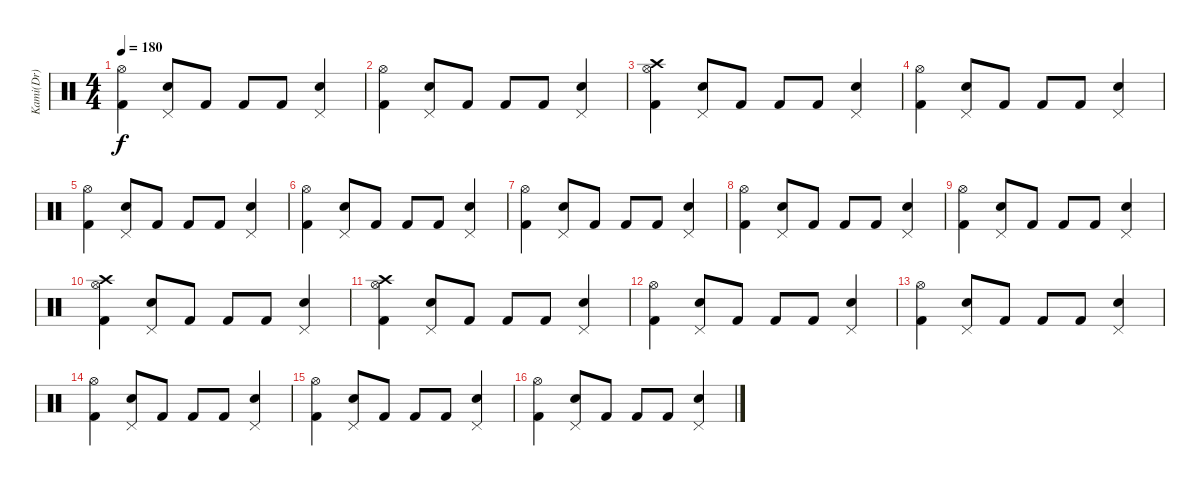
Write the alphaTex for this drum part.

\track ("Kami(Dr)" "Kami(Dr)") {instrument percussion}
\staff {score}
\articulation defaults
\ts (4 4)
\tempo 180
\clef neutral
\ks c
("Kick (hit) 2" "Hi-Hat (open)").4{dy f} ("Electric Snare (hit)" "Pedal Hi-Hat (hit)").8 "Kick (hit) 2".8 "Kick (hit) 2".8 "Kick (hit) 2".8 ("Electric Snare (hit)" "Pedal Hi-Hat (hit)").4 |
("Kick (hit) 2" "Hi-Hat (open)").4 ("Electric Snare (hit)" "Pedal Hi-Hat (hit)").8 "Kick (hit) 2".8 "Kick (hit) 2".8 "Kick (hit) 2".8 ("Electric Snare (hit)" "Pedal Hi-Hat (hit)").4 |
("Kick (hit) 2" "Hi-Hat (open)" "Crash high (hit)").4 ("Electric Snare (hit)" "Pedal Hi-Hat (hit)").8 "Kick (hit) 2".8 "Kick (hit) 2".8 "Kick (hit) 2".8 ("Electric Snare (hit)" "Pedal Hi-Hat (hit)").4 |
("Kick (hit) 2" "Hi-Hat (open)").4 ("Electric Snare (hit)" "Pedal Hi-Hat (hit)").8 "Kick (hit) 2".8 "Kick (hit) 2".8 "Kick (hit) 2".8 ("Electric Snare (hit)" "Pedal Hi-Hat (hit)").4 |
("Kick (hit) 2" "Hi-Hat (open)").4 ("Electric Snare (hit)" "Pedal Hi-Hat (hit)").8 "Kick (hit) 2".8 "Kick (hit) 2".8 "Kick (hit) 2".8 ("Electric Snare (hit)" "Pedal Hi-Hat (hit)").4 |
("Kick (hit) 2" "Hi-Hat (open)").4 ("Electric Snare (hit)" "Pedal Hi-Hat (hit)").8 "Kick (hit) 2".8 "Kick (hit) 2".8 "Kick (hit) 2".8 ("Electric Snare (hit)" "Pedal Hi-Hat (hit)").4 |
("Kick (hit) 2" "Hi-Hat (open)").4 ("Electric Snare (hit)" "Pedal Hi-Hat (hit)").8 "Kick (hit) 2".8 "Kick (hit) 2".8 "Kick (hit) 2".8 ("Electric Snare (hit)" "Pedal Hi-Hat (hit)").4 |
("Kick (hit) 2" "Hi-Hat (open)").4 ("Electric Snare (hit)" "Pedal Hi-Hat (hit)").8 "Kick (hit) 2".8 "Kick (hit) 2".8 "Kick (hit) 2".8 ("Electric Snare (hit)" "Pedal Hi-Hat (hit)").4 |
("Kick (hit) 2" "Hi-Hat (open)").4 ("Electric Snare (hit)" "Pedal Hi-Hat (hit)").8 "Kick (hit) 2".8 "Kick (hit) 2".8 "Kick (hit) 2".8 ("Electric Snare (hit)" "Pedal Hi-Hat (hit)").4 |
("Kick (hit) 2" "Hi-Hat (open)" "Crash high (hit)").4 ("Electric Snare (hit)" "Pedal Hi-Hat (hit)").8 "Kick (hit) 2".8 "Kick (hit) 2".8 "Kick (hit) 2".8 ("Electric Snare (hit)" "Pedal Hi-Hat (hit)").4 |
("Kick (hit) 2" "Hi-Hat (open)" "Crash high (hit)").4 ("Electric Snare (hit)" "Pedal Hi-Hat (hit)").8 "Kick (hit) 2".8 "Kick (hit) 2".8 "Kick (hit) 2".8 ("Electric Snare (hit)" "Pedal Hi-Hat (hit)").4 |
("Kick (hit) 2" "Hi-Hat (open)").4 ("Electric Snare (hit)" "Pedal Hi-Hat (hit)").8 "Kick (hit) 2".8 "Kick (hit) 2".8 "Kick (hit) 2".8 ("Electric Snare (hit)" "Pedal Hi-Hat (hit)").4 |
("Kick (hit) 2" "Hi-Hat (open)").4 ("Electric Snare (hit)" "Pedal Hi-Hat (hit)").8 "Kick (hit) 2".8 "Kick (hit) 2".8 "Kick (hit) 2".8 ("Electric Snare (hit)" "Pedal Hi-Hat (hit)").4 |
("Kick (hit) 2" "Hi-Hat (open)").4 ("Electric Snare (hit)" "Pedal Hi-Hat (hit)").8 "Kick (hit) 2".8 "Kick (hit) 2".8 "Kick (hit) 2".8 ("Electric Snare (hit)" "Pedal Hi-Hat (hit)").4 |
("Kick (hit) 2" "Hi-Hat (open)").4 ("Electric Snare (hit)" "Pedal Hi-Hat (hit)").8 "Kick (hit) 2".8 "Kick (hit) 2".8 "Kick (hit) 2".8 ("Electric Snare (hit)" "Pedal Hi-Hat (hit)").4 |
("Kick (hit) 2" "Hi-Hat (open)").4 ("Electric Snare (hit)" "Pedal Hi-Hat (hit)").8 "Kick (hit) 2".8 "Kick (hit) 2".8 "Kick (hit) 2".8 ("Electric Snare (hit)" "Pedal Hi-Hat (hit)").4
